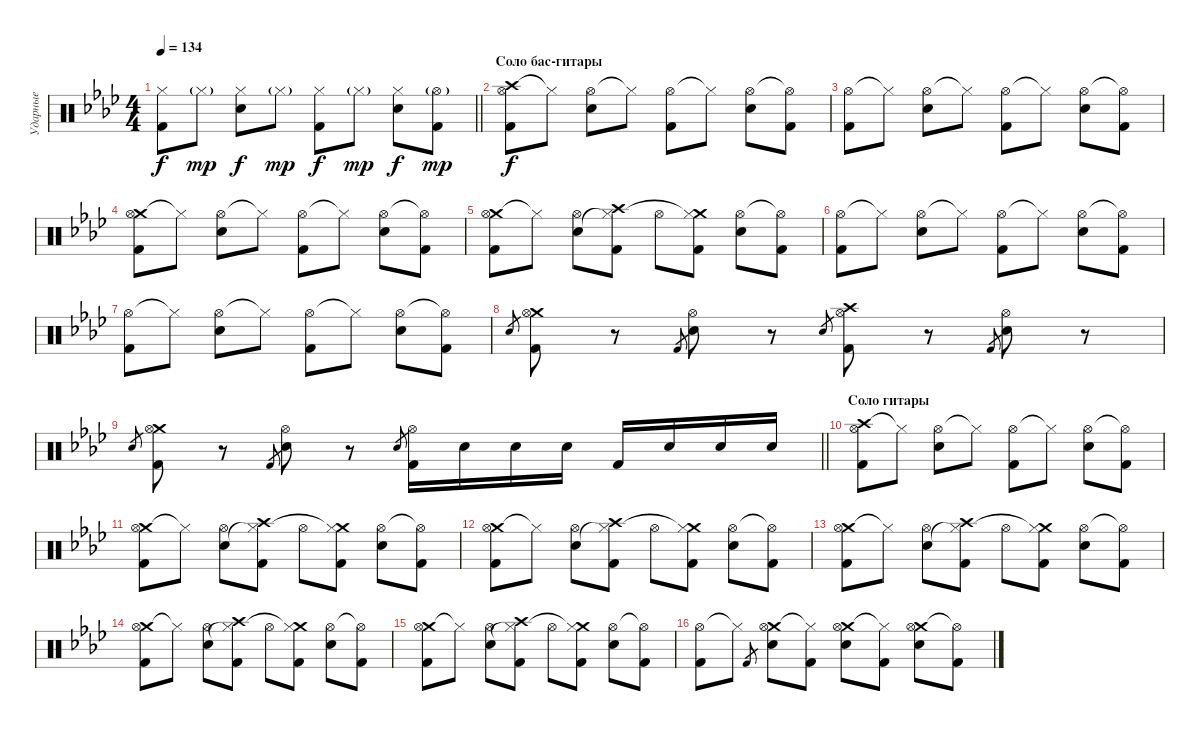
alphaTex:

\track ("Ударные" "Ударные") {instrument percussion}
\staff {score}
\articulation defaults
\ts (4 4)
\tempo 134
\clef neutral
\barLineRight lightlight
\ks fminor
("Hi-Hat (closed)" "Kick (hit) 2").8{dy f} "Hi-Hat (closed)"{g}.8{dy mp} ("Hi-Hat (closed)" "Electric Snare (hit)").8{dy f} "Hi-Hat (closed)"{g}.8{dy mp} ("Hi-Hat (closed)" "Kick (hit) 2").8{dy f} "Hi-Hat (closed)"{g}.8{dy mp} ("Hi-Hat (closed)" "Electric Snare (hit)").8{dy f} ("Hi-Hat (open)"{g} "Kick (hit) 2").8{dy mp} |
\section ("" "Соло бас-гитары")
("Crash high (hit)" "Hi-Hat (open)" "Kick (hit) 2").8{dy f} "Hi-Hat (closed)"{t}.8 ("Hi-Hat (open)" "Electric Snare (hit)").8 "Hi-Hat (closed)"{t}.8 ("Hi-Hat (open)" "Kick (hit) 2").8 "Hi-Hat (closed)"{t}.8 ("Hi-Hat (open)" "Electric Snare (hit)").8 ("Hi-Hat (open)"{t} "Kick (hit) 2").8 |
("Hi-Hat (open)" "Kick (hit) 2").8 "Hi-Hat (closed)"{t}.8 ("Hi-Hat (open)" "Electric Snare (hit)").8 "Hi-Hat (closed)"{t}.8 ("Hi-Hat (open)" "Kick (hit) 2").8 "Hi-Hat (closed)"{t}.8 ("Hi-Hat (open)" "Electric Snare (hit)").8 ("Hi-Hat (open)"{t} "Kick (hit) 2").8 |
("Crash medium (hit)" "Hi-Hat (open)" "Kick (hit) 2").8 "Hi-Hat (closed)"{t}.8 ("Hi-Hat (open)" "Electric Snare (hit)").8 "Hi-Hat (closed)"{t}.8 ("Hi-Hat (open)" "Kick (hit) 2").8 "Hi-Hat (closed)"{t}.8 ("Hi-Hat (open)" "Electric Snare (hit)").8 ("Hi-Hat (open)"{t} "Kick (hit) 2").8 |
("Crash medium (hit)" "Hi-Hat (open)" "Kick (hit) 2").8 "Hi-Hat (closed)"{t}.8 ("Hi-Hat (open)" "Electric Snare (hit)").8 ("Crash high (hit)" "Hi-Hat (closed)"{t} "Kick (hit) 2").8 "Hi-Hat (open)".8 ("Crash medium (hit)" "Hi-Hat (closed)"{t} "Kick (hit) 2").8 ("Hi-Hat (open)" "Electric Snare (hit)").8 ("Hi-Hat (open)"{t} "Kick (hit) 2").8 |
("Hi-Hat (open)" "Kick (hit) 2").8 "Hi-Hat (closed)"{t}.8 ("Hi-Hat (open)" "Electric Snare (hit)").8 "Hi-Hat (closed)"{t}.8 ("Hi-Hat (open)" "Kick (hit) 2").8 "Hi-Hat (closed)"{t}.8 ("Hi-Hat (open)" "Electric Snare (hit)").8 ("Hi-Hat (open)"{t} "Kick (hit) 2").8 |
("Hi-Hat (open)" "Kick (hit) 2").8 "Hi-Hat (closed)"{t}.8 ("Hi-Hat (open)" "Electric Snare (hit)").8 "Hi-Hat (closed)"{t}.8 ("Hi-Hat (open)" "Kick (hit) 2").8 "Hi-Hat (closed)"{t}.8 ("Hi-Hat (open)" "Electric Snare (hit)").8 ("Hi-Hat (open)"{t} "Kick (hit) 2").8 |
"Electric Snare (hit)".8{gr} ("Crash medium (hit)" "Hi-Hat (open)" "Kick (hit) 2").8 r.8 "Kick (hit) 2".8{gr} ("Hi-Hat (open)" "Electric Snare (hit)").8 r.8 "Electric Snare (hit)".8{gr} ("Crash high (hit)" "Hi-Hat (open)" "Kick (hit) 2").8 r.8 "Kick (hit) 2".8{gr} ("Hi-Hat (open)" "Electric Snare (hit)").8 r.8 |
\barLineRight lightlight "Electric Snare (hit)".8{gr}
("Crash medium (hit)" "Hi-Hat (open)" "Kick (hit) 2").8 r.8 "Kick (hit) 2".8{gr} ("Hi-Hat (open)" "Electric Snare (hit)").8 r.8 "Electric Snare (hit)".8{gr} ("Hi-Hat (open)" "Kick (hit) 2").16 "Electric Snare (hit)".16 "Electric Snare (hit)".16 "Electric Snare (hit)".16 "Kick (hit) 2".16 "Electric Snare (hit)".16 "Electric Snare (hit)".16 "Electric Snare (hit)".16 |
\section ("" "Соло гитары")
("Crash high (hit)" "Hi-Hat (open)" "Kick (hit) 2").8 "Hi-Hat (closed)"{t}.8 ("Hi-Hat (open)" "Electric Snare (hit)").8 "Hi-Hat (closed)"{t}.8 ("Hi-Hat (open)" "Kick (hit) 2").8 "Hi-Hat (closed)"{t}.8 ("Hi-Hat (open)" "Electric Snare (hit)").8 ("Hi-Hat (open)"{t} "Kick (hit) 2").8 |
("Crash medium (hit)" "Hi-Hat (open)" "Kick (hit) 2").8 "Hi-Hat (closed)"{t}.8 ("Hi-Hat (open)" "Electric Snare (hit)").8 ("Crash high (hit)" "Hi-Hat (closed)"{t} "Kick (hit) 2").8 "Hi-Hat (open)".8 ("Crash medium (hit)" "Hi-Hat (closed)"{t} "Kick (hit) 2").8 ("Hi-Hat (open)" "Electric Snare (hit)").8 ("Hi-Hat (open)"{t} "Kick (hit) 2").8 |
("Crash medium (hit)" "Hi-Hat (open)" "Kick (hit) 2").8 "Hi-Hat (closed)"{t}.8 ("Hi-Hat (open)" "Electric Snare (hit)").8 ("Crash high (hit)" "Hi-Hat (closed)"{t} "Kick (hit) 2").8 "Hi-Hat (open)".8 ("Crash medium (hit)" "Hi-Hat (closed)"{t} "Kick (hit) 2").8 ("Hi-Hat (open)" "Electric Snare (hit)").8 ("Hi-Hat (open)"{t} "Kick (hit) 2").8 |
("Crash medium (hit)" "Hi-Hat (open)" "Kick (hit) 2").8 "Hi-Hat (closed)"{t}.8 ("Hi-Hat (open)" "Electric Snare (hit)").8 ("Crash high (hit)" "Hi-Hat (closed)"{t} "Kick (hit) 2").8 "Hi-Hat (open)".8 ("Crash medium (hit)" "Hi-Hat (closed)"{t} "Kick (hit) 2").8 ("Hi-Hat (open)" "Electric Snare (hit)").8 ("Hi-Hat (open)"{t} "Kick (hit) 2").8 |
("Crash medium (hit)" "Hi-Hat (open)" "Kick (hit) 2").8 "Hi-Hat (closed)"{t}.8 ("Hi-Hat (open)" "Electric Snare (hit)").8 ("Crash high (hit)" "Hi-Hat (closed)"{t} "Kick (hit) 2").8 "Hi-Hat (open)".8 ("Crash medium (hit)" "Hi-Hat (closed)"{t} "Kick (hit) 2").8 ("Hi-Hat (open)" "Electric Snare (hit)").8 ("Hi-Hat (open)"{t} "Kick (hit) 2").8 |
("Crash medium (hit)" "Hi-Hat (open)" "Kick (hit) 2").8 "Hi-Hat (closed)"{t}.8 ("Hi-Hat (open)" "Electric Snare (hit)").8 ("Crash high (hit)" "Hi-Hat (closed)"{t} "Kick (hit) 2").8 "Hi-Hat (open)".8 ("Crash medium (hit)" "Hi-Hat (closed)"{t} "Kick (hit) 2").8 ("Hi-Hat (open)" "Electric Snare (hit)").8 ("Hi-Hat (open)"{t} "Kick (hit) 2").8 |
("Hi-Hat (open)" "Kick (hit) 2").8 "Hi-Hat (closed)"{t}.8 "Kick (hit) 2".8{gr} ("Crash medium (hit)" "Hi-Hat (open)" "Electric Snare (hit)").8 ("Hi-Hat (closed)"{t} "Kick (hit) 2").8 ("Crash medium (hit)" "Hi-Hat (open)" "Electric Snare (hit)").8 ("Hi-Hat (closed)"{t} "Kick (hit) 2").8 ("Crash medium (hit)" "Hi-Hat (open)" "Electric Snare (hit)").8 ("Hi-Hat (open)"{t} "Kick (hit) 2").8
